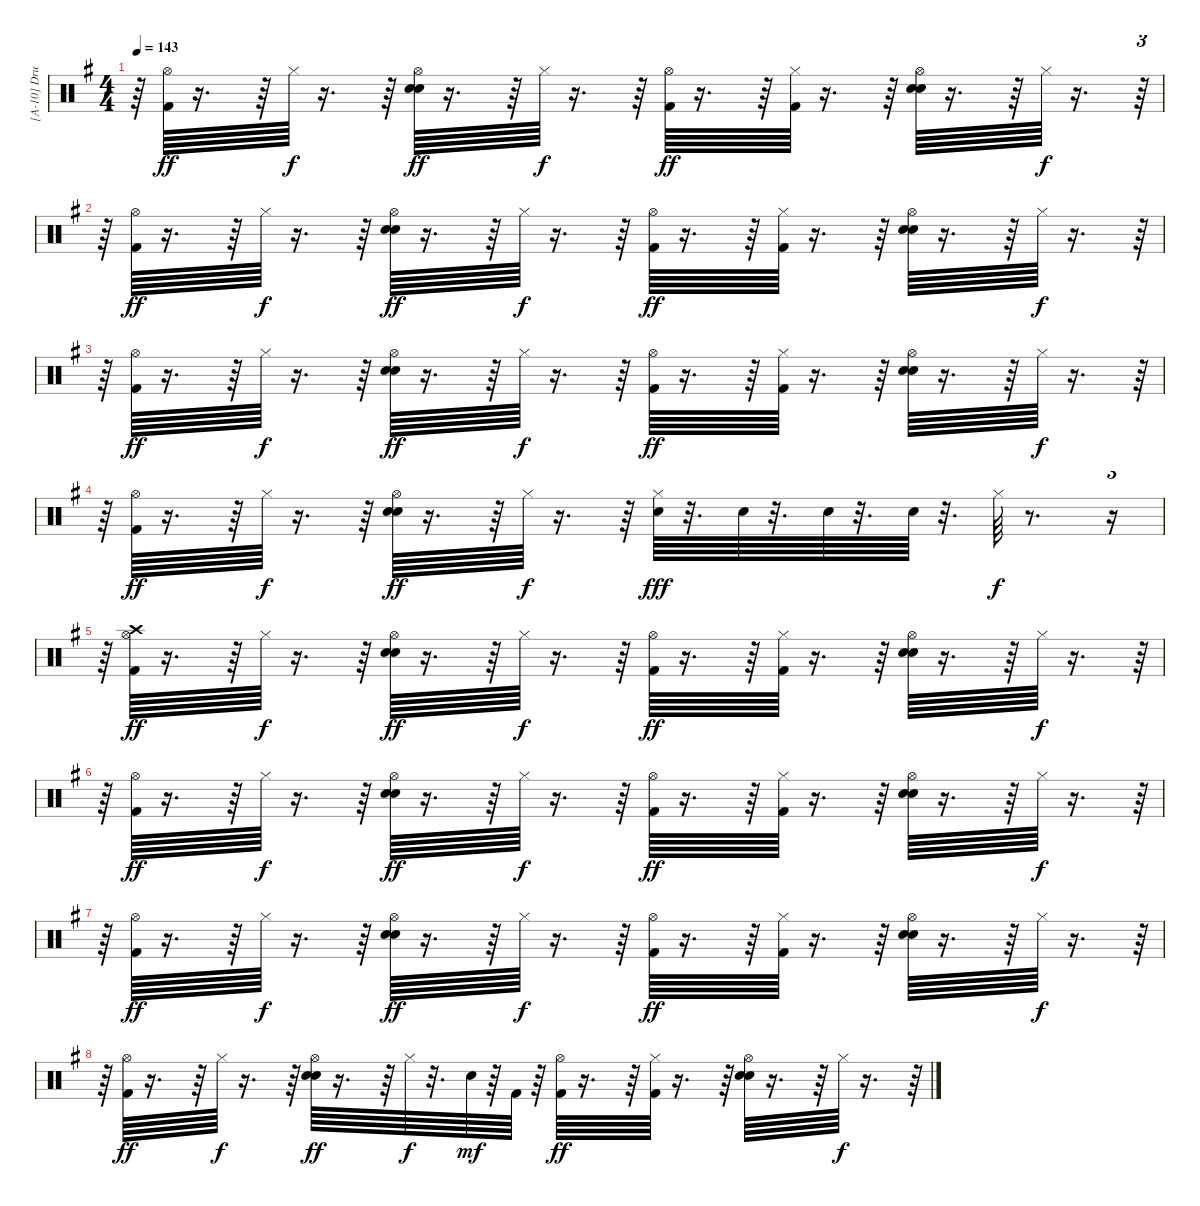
\track ("[A-10] Drums" "[A-10] Dru") {instrument percussion}
\staff {score}
\articulation defaults
\ts (4 4)
\tempo 143
\clef neutral
\ks g
r.64{dy f} ("Hi-Hat (open)" "Kick (hit) 2").64{dy ff} r.16{d} r.64 "Hi-Hat (closed)".64{dy f} r.16{d} r.64 ("Hi-Hat (open)" "Electric Snare (hit)" "Snare (hit) 2").64{dy ff} r.16{d} r.64 "Hi-Hat (closed)".64{dy f} r.16{d} r.64 ("Hi-Hat (open)" "Kick (hit) 2").64{dy ff} r.16{d} r.64 ("Hi-Hat (closed)" "Kick (hit) 2").64 r.16{d} r.64 ("Hi-Hat (open)" "Electric Snare (hit)" "Snare (hit) 2").64 r.16{d} r.64 "Hi-Hat (closed)".64{dy f} r.16{d} r.64{tu (3 2)} |
r.64 ("Hi-Hat (open)" "Kick (hit) 2").64{dy ff} r.16{d} r.64 "Hi-Hat (closed)".64{dy f} r.16{d} r.64 ("Hi-Hat (open)" "Electric Snare (hit)" "Snare (hit) 2").64{dy ff} r.16{d} r.64 "Hi-Hat (closed)".64{dy f} r.16{d} r.64 ("Hi-Hat (open)" "Kick (hit) 2").64{dy ff} r.16{d} r.64 ("Hi-Hat (closed)" "Kick (hit) 2").64 r.16{d} r.64 ("Hi-Hat (open)" "Electric Snare (hit)" "Snare (hit) 2").64 r.16{d} r.64 "Hi-Hat (closed)".64{dy f} r.16{d} r.64{tu (3 2)} |
r.64 ("Hi-Hat (open)" "Kick (hit) 2").64{dy ff} r.16{d} r.64 "Hi-Hat (closed)".64{dy f} r.16{d} r.64 ("Hi-Hat (open)" "Electric Snare (hit)" "Snare (hit) 2").64{dy ff} r.16{d} r.64 "Hi-Hat (closed)".64{dy f} r.16{d} r.64 ("Hi-Hat (open)" "Kick (hit) 2").64{dy ff} r.16{d} r.64 ("Hi-Hat (closed)" "Kick (hit) 2").64 r.16{d} r.64 ("Hi-Hat (open)" "Electric Snare (hit)" "Snare (hit) 2").64 r.16{d} r.64 "Hi-Hat (closed)".64{dy f} r.16{d} r.64{tu (3 2)} |
r.64 ("Hi-Hat (open)" "Kick (hit) 2").64{dy ff} r.16{d} r.64 "Hi-Hat (closed)".64{dy f} r.16{d} r.64 ("Hi-Hat (open)" "Electric Snare (hit)" "Snare (hit) 2").64{dy ff} r.16{d} r.64 "Hi-Hat (closed)".64{dy f} r.16{d} r.64 ("Hi-Hat (closed)" "Snare (hit) 2").64{dy fff} r.32{d} "Snare (hit) 2".64 r.32{d} "Snare (hit) 2".64 r.32{d} "Snare (hit) 2".64 r.32{d} "Hi-Hat (closed)".64{dy f} r.8{d} r.16{tu (3 2)} |
r.64 ("Crash high (hit)" "Hi-Hat (open)" "Kick (hit) 2").64{dy ff} r.16{d} r.64 "Hi-Hat (closed)".64{dy f} r.16{d} r.64 ("Hi-Hat (open)" "Electric Snare (hit)" "Snare (hit) 2").64{dy ff} r.16{d} r.64 "Hi-Hat (closed)".64{dy f} r.16{d} r.64 ("Hi-Hat (open)" "Kick (hit) 2").64{dy ff} r.16{d} r.64 ("Hi-Hat (closed)" "Kick (hit) 2").64 r.16{d} r.64 ("Hi-Hat (open)" "Electric Snare (hit)" "Snare (hit) 2").64 r.16{d} r.64 "Hi-Hat (closed)".64{dy f} r.16{d} r.64{tu (3 2)} |
r.64 ("Hi-Hat (open)" "Kick (hit) 2").64{dy ff} r.16{d} r.64 "Hi-Hat (closed)".64{dy f} r.16{d} r.64 ("Hi-Hat (open)" "Electric Snare (hit)" "Snare (hit) 2").64{dy ff} r.16{d} r.64 "Hi-Hat (closed)".64{dy f} r.16{d} r.64 ("Hi-Hat (open)" "Kick (hit) 2").64{dy ff} r.16{d} r.64 ("Hi-Hat (closed)" "Kick (hit) 2").64 r.16{d} r.64 ("Hi-Hat (open)" "Electric Snare (hit)" "Snare (hit) 2").64 r.16{d} r.64 "Hi-Hat (closed)".64{dy f} r.16{d} r.64{tu (3 2)} |
r.64 ("Hi-Hat (open)" "Kick (hit) 2").64{dy ff} r.16{d} r.64 "Hi-Hat (closed)".64{dy f} r.16{d} r.64 ("Hi-Hat (open)" "Electric Snare (hit)" "Snare (hit) 2").64{dy ff} r.16{d} r.64 "Hi-Hat (closed)".64{dy f} r.16{d} r.64 ("Hi-Hat (open)" "Kick (hit) 2").64{dy ff} r.16{d} r.64 ("Hi-Hat (closed)" "Kick (hit) 2").64 r.16{d} r.64 ("Hi-Hat (open)" "Electric Snare (hit)" "Snare (hit) 2").64 r.16{d} r.64 "Hi-Hat (closed)".64{dy f} r.16{d} r.64{tu (3 2)} |
r.64 ("Hi-Hat (open)" "Kick (hit) 2").64{dy ff} r.16{d} r.64 "Hi-Hat (closed)".64{dy f} r.16{d} r.64 ("Hi-Hat (open)" "Electric Snare (hit)" "Snare (hit) 2").64{dy ff} r.16{d} r.64 "Hi-Hat (closed)".64{dy f} r.32{d} "Snare (hit) 2".64{dy mf} r.64 "Kick (hit) 2".64 r.64 ("Hi-Hat (open)" "Kick (hit) 2").64{dy ff} r.16{d} r.64 ("Hi-Hat (closed)" "Kick (hit) 2").64 r.16{d} r.64 ("Hi-Hat (open)" "Electric Snare (hit)" "Snare (hit) 2").64 r.16{d} r.64 "Hi-Hat (closed)".64{dy f} r.16{d} r.64{tu (3 2)}
